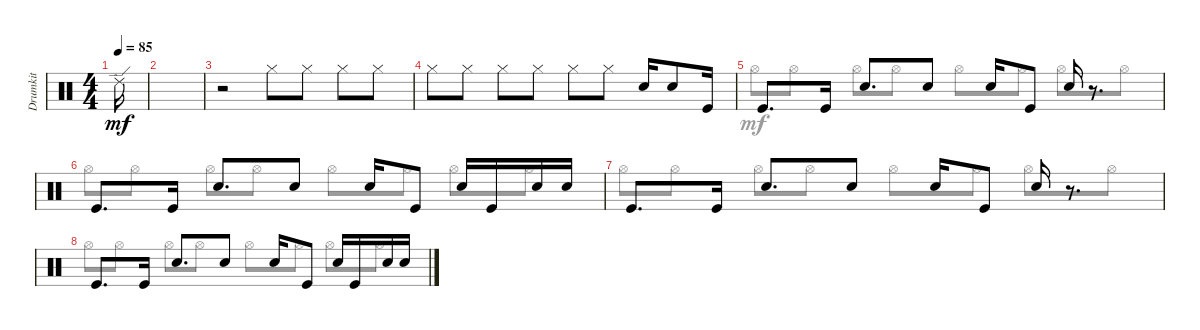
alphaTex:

\track ("Drumkit" "Drumkit") {instrument percussion}
\staff {score}
\articulation defaults
\voice
\ts (4 4)
\tempo 85
\clef neutral
\ks c "Ride (edge) 2".16{dy mf}
|
|
r.2 "Hi-Hat (closed)".8 "Hi-Hat (closed)".8 "Hi-Hat (closed)".8 "Hi-Hat (closed)".8 |
"Hi-Hat (closed)".8 "Hi-Hat (closed)".8 "Hi-Hat (closed)".8 "Hi-Hat (closed)".8 "Hi-Hat (closed)".8 "Hi-Hat (closed)".8 "Snare (hit) 2".16 "Snare (hit) 2".8 "Kick (hit)".16 |
"Kick (hit)".8{d} "Kick (hit)".16 "Snare (hit) 2".8{d} "Snare (hit) 2".8 "Snare (hit) 2".16 "Kick (hit)".8 "Snare (hit) 2".16 r.8{d} |
"Kick (hit)".8{d} "Kick (hit)".16 "Snare (hit) 2".8{d} "Snare (hit) 2".8 "Snare (hit) 2".16 "Kick (hit)".8 "Snare (hit) 2".16 "Kick (hit)".16 "Snare (hit) 2".16 "Snare (hit) 2".16 |
"Kick (hit)".8{d} "Kick (hit)".16 "Snare (hit) 2".8{d} "Snare (hit) 2".8 "Snare (hit) 2".16 "Kick (hit)".8 "Snare (hit) 2".16 r.8{d} |
"Kick (hit)".8{d} "Kick (hit)".16 "Snare (hit) 2".8{d} "Snare (hit) 2".8 "Snare (hit) 2".16 "Kick (hit)".8 "Snare (hit) 2".16 "Kick (hit)".16 "Snare (hit) 2".16 "Snare (hit) 2".16 |
|
|
\voice
\clef neutral
\ottava regular
\simile none
\ks c
|
|
|
|
"Hi-Hat (open)".8 "Hi-Hat (open)".8 "Hi-Hat (open)".8 "Hi-Hat (open)".8 "Hi-Hat (open)".8 "Hi-Hat (open)".8 "Hi-Hat (open)".8 "Hi-Hat (open)".8 |
"Hi-Hat (open)".8 "Hi-Hat (open)".8 "Hi-Hat (open)".8 "Hi-Hat (open)".8 "Hi-Hat (open)".8 "Hi-Hat (open)".8 "Hi-Hat (open)".8 "Hi-Hat (open)".8 |
"Hi-Hat (open)".8 "Hi-Hat (open)".8 "Hi-Hat (open)".8 "Hi-Hat (open)".8 "Hi-Hat (open)".8 "Hi-Hat (open)".8 "Hi-Hat (open)".8 "Hi-Hat (open)".8 |
"Hi-Hat (open)".8 "Hi-Hat (open)".8 "Hi-Hat (open)".8 "Hi-Hat (open)".8 "Hi-Hat (open)".8 "Hi-Hat (open)".8 "Hi-Hat (open)".8 "Hi-Hat (open)".8 |
|
|
